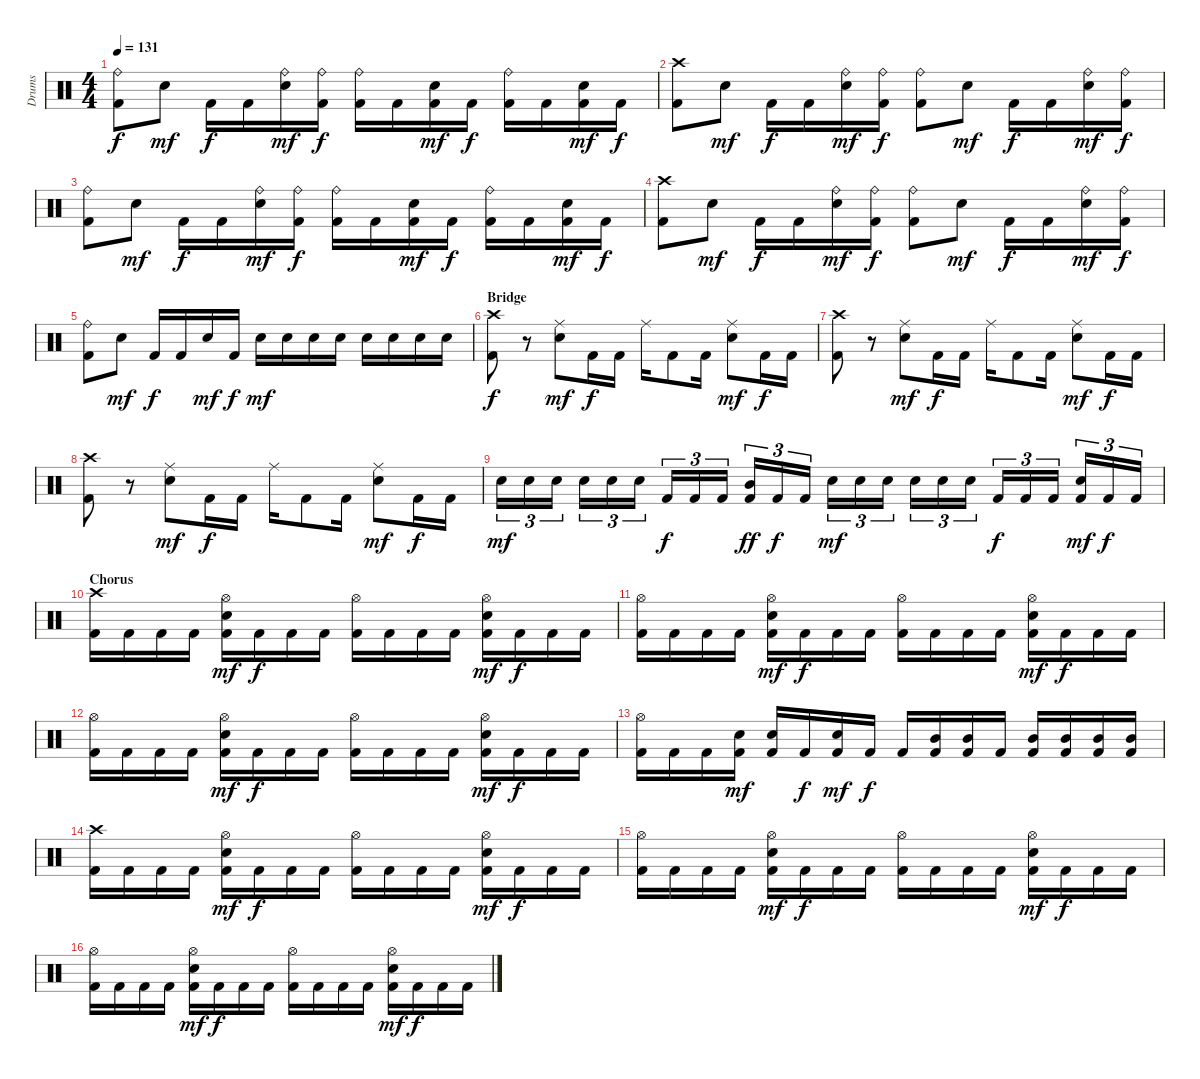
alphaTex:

\track ("Drums" "Drums") {instrument percussion}
\staff {score}
\articulation defaults
\ts (4 4)
\tempo 131
\clef neutral
\ks c
("Ride (bell)" "Kick (hit) 2").8{dy f} "Snare (hit) 2".8{dy mf} "Kick (hit) 2".16{dy f} "Kick (hit) 2".16 ("Ride (bell)" "Snare (hit) 2").16{dy mf} ("Ride (bell)" "Kick (hit) 2").16{dy f} ("Ride (bell)" "Kick (hit) 2").16 "Kick (hit) 2".16 ("Snare (hit) 2" "Kick (hit) 2").16{dy mf} "Kick (hit) 2".16{dy f} ("Ride (bell)" "Kick (hit) 2").16 "Kick (hit) 2".16 ("Snare (hit) 2" "Kick (hit) 2").16{dy mf} "Kick (hit) 2".16{dy f} |
("Crash high (hit)" "Kick (hit) 2").8 "Snare (hit) 2".8{dy mf} "Kick (hit) 2".16{dy f} "Kick (hit) 2".16 ("Ride (bell)" "Snare (hit) 2").16{dy mf} ("Ride (bell)" "Kick (hit) 2").16{dy f} ("Ride (bell)" "Kick (hit) 2").8 "Snare (hit) 2".8{dy mf} "Kick (hit) 2".16{dy f} "Kick (hit) 2".16 ("Ride (bell)" "Snare (hit) 2").16{dy mf} ("Ride (bell)" "Kick (hit) 2").16{dy f} |
("Ride (bell)" "Kick (hit) 2").8 "Snare (hit) 2".8{dy mf} "Kick (hit) 2".16{dy f} "Kick (hit) 2".16 ("Ride (bell)" "Snare (hit) 2").16{dy mf} ("Ride (bell)" "Kick (hit) 2").16{dy f} ("Ride (bell)" "Kick (hit) 2").16 "Kick (hit) 2".16 ("Snare (hit) 2" "Kick (hit) 2").16{dy mf} "Kick (hit) 2".16{dy f} ("Ride (bell)" "Kick (hit) 2").16 "Kick (hit) 2".16 ("Snare (hit) 2" "Kick (hit) 2").16{dy mf} "Kick (hit) 2".16{dy f} |
("Crash high (hit)" "Kick (hit) 2").8 "Snare (hit) 2".8{dy mf} "Kick (hit) 2".16{dy f} "Kick (hit) 2".16 ("Ride (bell)" "Snare (hit) 2").16{dy mf} ("Ride (bell)" "Kick (hit) 2").16{dy f} ("Ride (bell)" "Kick (hit) 2").8 "Snare (hit) 2".8{dy mf} "Kick (hit) 2".16{dy f} "Kick (hit) 2".16 ("Ride (bell)" "Snare (hit) 2").16{dy mf} ("Ride (bell)" "Kick (hit) 2").16{dy f} |
("Ride (bell)" "Kick (hit) 2").8 "Snare (hit) 2".8{dy mf} "Kick (hit) 2".16{dy f} "Kick (hit) 2".16 "Snare (hit) 2".16{dy mf} "Kick (hit) 2".16{dy f} "Snare (hit) 2".16{dy mf} "Snare (hit) 2".16 "Snare (hit) 2".16 "Snare (hit) 2".16 "Snare (hit) 2".16 "Snare (hit) 2".16 "Snare (hit) 2".16 "Snare (hit) 2".16 |
\section ("" "Bridge")
("Crash high (hit)" "Kick (hit) 2").8{dy f} r.8 ("Ride (middle)" "Snare (hit) 2").8{dy mf} "Kick (hit) 2".16{dy f} "Kick (hit) 2".16 "Ride (middle)".16 "Kick (hit) 2".8 "Kick (hit) 2".16 ("Ride (middle)" "Snare (hit) 2").8{dy mf} "Kick (hit) 2".16{dy f} "Kick (hit) 2".16 |
("Crash high (hit)" "Kick (hit) 2").8 r.8 ("Ride (middle)" "Snare (hit) 2").8{dy mf} "Kick (hit) 2".16{dy f} "Kick (hit) 2".16 "Ride (middle)".16 "Kick (hit) 2".8 "Kick (hit) 2".16 ("Ride (middle)" "Snare (hit) 2").8{dy mf} "Kick (hit) 2".16{dy f} "Kick (hit) 2".16 |
("Crash high (hit)" "Kick (hit) 2").8 r.8 ("Ride (middle)" "Snare (hit) 2").8{dy mf} "Kick (hit) 2".16{dy f} "Kick (hit) 2".16 "Ride (middle)".16 "Kick (hit) 2".8 "Kick (hit) 2".16 ("Ride (middle)" "Snare (hit) 2").8{dy mf} "Kick (hit) 2".16{dy f} "Kick (hit) 2".16 |
"Snare (hit) 2".16{tu (3 2) dy mf} "Snare (hit) 2".16{tu (3 2)} "Snare (hit) 2".16{tu (3 2)} "Snare (hit) 2".16{tu (3 2)} "Snare (hit) 2".16{tu (3 2)} "Snare (hit) 2".16{tu (3 2)} "Kick (hit) 2".16{tu (3 2) dy f} "Kick (hit) 2".16{tu (3 2)} "Kick (hit) 2".16{tu (3 2)} ("Mid Tom (hit)" "Kick (hit) 2").16{tu (3 2) dy ff} "Kick (hit) 2".16{tu (3 2) dy f} "Kick (hit) 2".16{tu (3 2)} "Snare (hit) 2".16{tu (3 2) dy mf} "Snare (hit) 2".16{tu (3 2)} "Snare (hit) 2".16{tu (3 2)} "Snare (hit) 2".16{tu (3 2)} "Snare (hit) 2".16{tu (3 2)} "Snare (hit) 2".16{tu (3 2)} "Kick (hit) 2".16{tu (3 2) dy f} "Kick (hit) 2".16{tu (3 2)} "Kick (hit) 2".16{tu (3 2)} ("Snare (hit) 2" "Kick (hit) 2").16{tu (3 2) dy mf} "Kick (hit) 2".16{tu (3 2) dy f} "Kick (hit) 2".16{tu (3 2)} |
\section ("" "Chorus")
("Crash high (hit)" "Kick (hit) 2").16 "Kick (hit) 2".16 "Kick (hit) 2".16 "Kick (hit) 2".16 ("Hi-Hat (open)" "Snare (hit) 2" "Kick (hit) 2").16{dy mf} "Kick (hit) 2".16{dy f} "Kick (hit) 2".16 "Kick (hit) 2".16 ("Hi-Hat (open)" "Kick (hit) 2").16 "Kick (hit) 2".16 "Kick (hit) 2".16 "Kick (hit) 2".16 ("Hi-Hat (open)" "Snare (hit) 2" "Kick (hit) 2").16{dy mf} "Kick (hit) 2".16{dy f} "Kick (hit) 2".16 "Kick (hit) 2".16 |
("Hi-Hat (open)" "Kick (hit) 2").16 "Kick (hit) 2".16 "Kick (hit) 2".16 "Kick (hit) 2".16 ("Hi-Hat (open)" "Snare (hit) 2" "Kick (hit) 2").16{dy mf} "Kick (hit) 2".16{dy f} "Kick (hit) 2".16 "Kick (hit) 2".16 ("Hi-Hat (open)" "Kick (hit) 2").16 "Kick (hit) 2".16 "Kick (hit) 2".16 "Kick (hit) 2".16 ("Hi-Hat (open)" "Snare (hit) 2" "Kick (hit) 2").16{dy mf} "Kick (hit) 2".16{dy f} "Kick (hit) 2".16 "Kick (hit) 2".16 |
("Hi-Hat (open)" "Kick (hit) 2").16 "Kick (hit) 2".16 "Kick (hit) 2".16 "Kick (hit) 2".16 ("Hi-Hat (open)" "Snare (hit) 2" "Kick (hit) 2").16{dy mf} "Kick (hit) 2".16{dy f} "Kick (hit) 2".16 "Kick (hit) 2".16 ("Hi-Hat (open)" "Kick (hit) 2").16 "Kick (hit) 2".16 "Kick (hit) 2".16 "Kick (hit) 2".16 ("Hi-Hat (open)" "Snare (hit) 2" "Kick (hit) 2").16{dy mf} "Kick (hit) 2".16{dy f} "Kick (hit) 2".16 "Kick (hit) 2".16 |
("Hi-Hat (open)" "Kick (hit) 2").16 "Kick (hit) 2".16 "Kick (hit) 2".16 ("Snare (hit) 2" "Kick (hit) 2").16{dy mf} ("Snare (hit) 2" "Kick (hit) 2").16 "Kick (hit) 2".16{dy f} ("Snare (hit) 2" "Kick (hit) 2").16{dy mf} "Kick (hit) 2".16{dy f} "Kick (hit) 2".16 ("Mid Tom (hit)" "Kick (hit) 2").16 ("Mid Tom (hit)" "Kick (hit) 2").16 "Kick (hit) 2".16 ("Mid Tom (hit)" "Kick (hit) 2").16 ("Mid Tom (hit)" "Kick (hit) 2").16 ("Mid Tom (hit)" "Kick (hit) 2").16 ("Mid Tom (hit)" "Kick (hit) 2").16 |
("Crash high (hit)" "Kick (hit) 2").16 "Kick (hit) 2".16 "Kick (hit) 2".16 "Kick (hit) 2".16 ("Hi-Hat (open)" "Snare (hit) 2" "Kick (hit) 2").16{dy mf} "Kick (hit) 2".16{dy f} "Kick (hit) 2".16 "Kick (hit) 2".16 ("Hi-Hat (open)" "Kick (hit) 2").16 "Kick (hit) 2".16 "Kick (hit) 2".16 "Kick (hit) 2".16 ("Hi-Hat (open)" "Snare (hit) 2" "Kick (hit) 2").16{dy mf} "Kick (hit) 2".16{dy f} "Kick (hit) 2".16 "Kick (hit) 2".16 |
("Hi-Hat (open)" "Kick (hit) 2").16 "Kick (hit) 2".16 "Kick (hit) 2".16 "Kick (hit) 2".16 ("Hi-Hat (open)" "Snare (hit) 2" "Kick (hit) 2").16{dy mf} "Kick (hit) 2".16{dy f} "Kick (hit) 2".16 "Kick (hit) 2".16 ("Hi-Hat (open)" "Kick (hit) 2").16 "Kick (hit) 2".16 "Kick (hit) 2".16 "Kick (hit) 2".16 ("Hi-Hat (open)" "Snare (hit) 2" "Kick (hit) 2").16{dy mf} "Kick (hit) 2".16{dy f} "Kick (hit) 2".16 "Kick (hit) 2".16 |
("Hi-Hat (open)" "Kick (hit) 2").16 "Kick (hit) 2".16 "Kick (hit) 2".16 "Kick (hit) 2".16 ("Hi-Hat (open)" "Snare (hit) 2" "Kick (hit) 2").16{dy mf} "Kick (hit) 2".16{dy f} "Kick (hit) 2".16 "Kick (hit) 2".16 ("Hi-Hat (open)" "Kick (hit) 2").16 "Kick (hit) 2".16 "Kick (hit) 2".16 "Kick (hit) 2".16 ("Hi-Hat (open)" "Snare (hit) 2" "Kick (hit) 2").16{dy mf} "Kick (hit) 2".16{dy f} "Kick (hit) 2".16 "Kick (hit) 2".16
